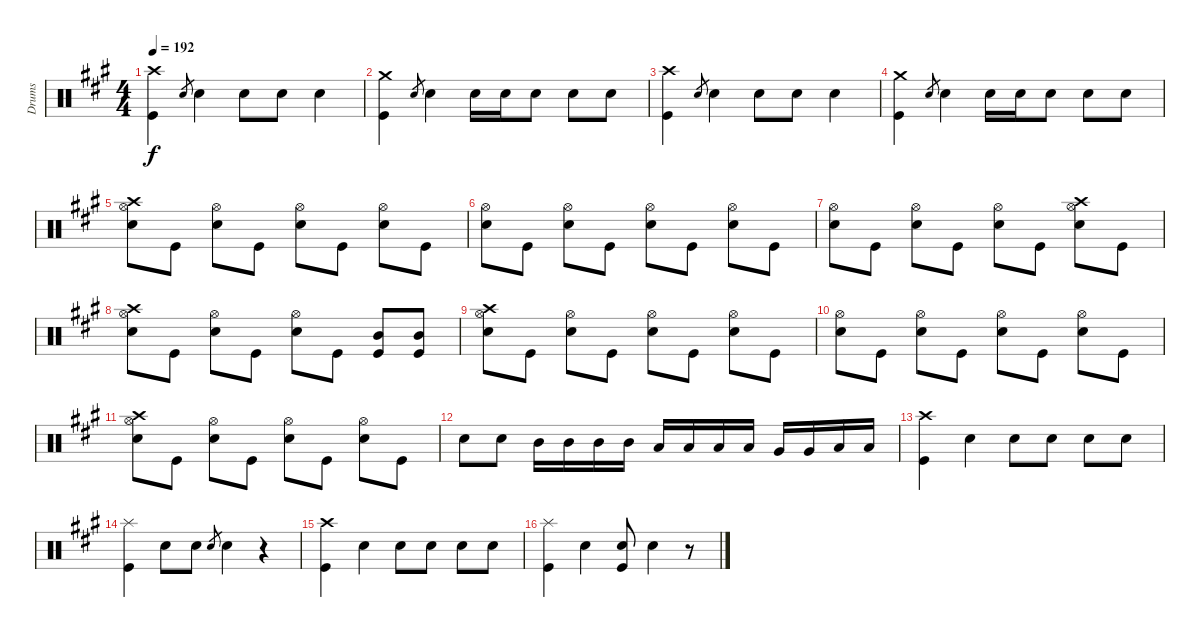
\track ("Drums" "Drums") {instrument percussion}
\staff {score}
\articulation defaults
\ts (4 4)
\tempo 192
\clef neutral
\ks f#minor
("Crash high (hit)" "Kick (hit)").4{dy f} "Snare (hit) 2".8{gr} "Snare (hit) 2".4 "Snare (hit) 2".8 "Snare (hit) 2".8 "Snare (hit) 2".4 |
("Crash medium (hit)" "Kick (hit)").4 "Snare (hit) 2".8{gr} "Snare (hit) 2".4 "Snare (hit) 2".16 "Snare (hit) 2".16 "Snare (hit) 2".8 "Snare (hit) 2".8 "Snare (hit) 2".8 |
("Crash high (hit)" "Kick (hit)").4 "Snare (hit) 2".8{gr} "Snare (hit) 2".4 "Snare (hit) 2".8 "Snare (hit) 2".8 "Snare (hit) 2".4 |
("Crash medium (hit)" "Kick (hit)").4 "Snare (hit) 2".8{gr} "Snare (hit) 2".4 "Snare (hit) 2".16 "Snare (hit) 2".16 "Snare (hit) 2".8 "Snare (hit) 2".8 "Snare (hit) 2".8 |
("Crash high (hit)" "Hi-Hat (open)" "Snare (hit) 2").8 "Kick (hit)".8 ("Hi-Hat (open)" "Snare (hit) 2").8 "Kick (hit)".8 ("Hi-Hat (open)" "Snare (hit) 2").8 "Kick (hit)".8 ("Hi-Hat (open)" "Snare (hit) 2").8 "Kick (hit)".8 |
("Hi-Hat (open)" "Snare (hit) 2").8 "Kick (hit)".8 ("Hi-Hat (open)" "Snare (hit) 2").8 "Kick (hit)".8 ("Hi-Hat (open)" "Snare (hit) 2").8 "Kick (hit)".8 ("Hi-Hat (open)" "Snare (hit) 2").8 "Kick (hit)".8 |
("Hi-Hat (open)" "Snare (hit) 2").8 "Kick (hit)".8 ("Hi-Hat (open)" "Snare (hit) 2").8 "Kick (hit)".8 ("Hi-Hat (open)" "Snare (hit) 2").8 "Kick (hit)".8 ("Crash high (hit)" "Hi-Hat (open)" "Snare (hit) 2").8 "Kick (hit)".8 |
("Crash high (hit)" "Hi-Hat (open)" "Snare (hit) 2").8 "Kick (hit)".8 ("Hi-Hat (open)" "Snare (hit) 2").8 "Kick (hit)".8 ("Hi-Hat (open)" "Snare (hit) 2").8 "Kick (hit)".8 ("Mid Tom (hit)" "Kick (hit)").8 ("Mid Tom (hit)" "Kick (hit)").8 |
("Crash high (hit)" "Hi-Hat (open)" "Snare (hit) 2").8 "Kick (hit)".8 ("Hi-Hat (open)" "Snare (hit) 2").8 "Kick (hit)".8 ("Hi-Hat (open)" "Snare (hit) 2").8 "Kick (hit)".8 ("Hi-Hat (open)" "Snare (hit) 2").8 "Kick (hit)".8 |
("Hi-Hat (open)" "Snare (hit) 2").8 "Kick (hit)".8 ("Hi-Hat (open)" "Snare (hit) 2").8 "Kick (hit)".8 ("Hi-Hat (open)" "Snare (hit) 2").8 "Kick (hit)".8 ("Hi-Hat (open)" "Snare (hit) 2").8 "Kick (hit)".8 |
("Crash high (hit)" "Hi-Hat (open)" "Snare (hit) 2").8 "Kick (hit)".8 ("Hi-Hat (open)" "Snare (hit) 2").8 "Kick (hit)".8 ("Hi-Hat (open)" "Snare (hit) 2").8 "Kick (hit)".8 ("Hi-Hat (open)" "Snare (hit) 2").8 "Kick (hit)".8 |
"Snare (hit) 2".8 "Snare (hit) 2".8 "Mid Tom (hit)".16 "Mid Tom (hit)".16 "Mid Tom (hit)".16 "Mid Tom (hit)".16 "Low Tom (hit)".16 "Low Tom (hit)".16 "Low Tom (hit)".16 "Low Tom (hit)".16 "Very Low Tom (hit)".16 "Very Low Tom (hit)".16 "Low Floor Tom (hit)".16 "Low Floor Tom (hit)".16 |
("Crash high (hit)" "Kick (hit)").4 "Snare (hit) 2".4 "Snare (hit) 2".8 "Snare (hit) 2".8 "Snare (hit) 2".8 "Snare (hit) 2".8 |
("Splash (hit)" "Kick (hit)").4 "Snare (hit) 2".8 "Snare (hit) 2".8 "Snare (hit) 2".8{gr} "Snare (hit) 2".4 r.4 |
("Crash high (hit)" "Kick (hit)").4 "Snare (hit) 2".4 "Snare (hit) 2".8 "Snare (hit) 2".8 "Snare (hit) 2".8 "Snare (hit) 2".8 |
("Splash (hit)" "Kick (hit)").4 "Snare (hit) 2"{tr (38 16)}.4 ("Snare (hit) 2" "Kick (hit)").8 "Snare (hit) 2".4 r.8
